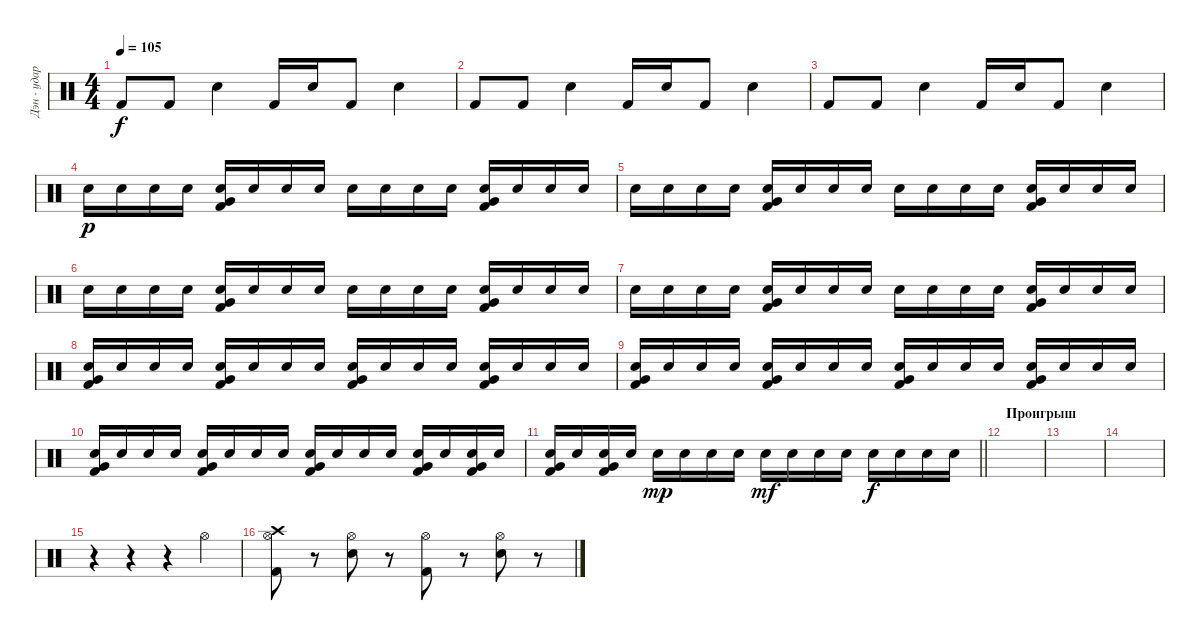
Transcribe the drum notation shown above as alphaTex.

\track ("Дэн - ударные" "Дэн - удар") {instrument percussion}
\staff {score}
\articulation defaults
\ts (4 4)
\tempo 105
\clef neutral
\ks c "Kick (hit) 2".8{dy f} "Kick (hit) 2".8 "Electric Snare (hit)".4 "Kick (hit) 2".16 "Electric Snare (hit)".16 "Kick (hit) 2".8 "Electric Snare (hit)".4
|
"Kick (hit) 2".8 "Kick (hit) 2".8 "Electric Snare (hit)".4 "Kick (hit) 2".16 "Electric Snare (hit)".16 "Kick (hit) 2".8 "Electric Snare (hit)".4 |
"Kick (hit) 2".8 "Kick (hit) 2".8 "Electric Snare (hit)".4 "Kick (hit) 2".16 "Electric Snare (hit)".16 "Kick (hit) 2".8 "Electric Snare (hit)".4 |
"Electric Snare (hit)".16{dy p} "Electric Snare (hit)".16 "Electric Snare (hit)".16 "Electric Snare (hit)".16 ("Electric Snare (hit)" "Very Low Tom (hit)" "Kick (hit) 2").16 "Electric Snare (hit)".16 "Electric Snare (hit)".16 "Electric Snare (hit)".16 "Electric Snare (hit)".16 "Electric Snare (hit)".16 "Electric Snare (hit)".16 "Electric Snare (hit)".16 ("Electric Snare (hit)" "Very Low Tom (hit)" "Kick (hit) 2").16 "Electric Snare (hit)".16 "Electric Snare (hit)".16 "Electric Snare (hit)".16 |
"Electric Snare (hit)".16 "Electric Snare (hit)".16 "Electric Snare (hit)".16 "Electric Snare (hit)".16 ("Electric Snare (hit)" "Very Low Tom (hit)" "Kick (hit) 2").16 "Electric Snare (hit)".16 "Electric Snare (hit)".16 "Electric Snare (hit)".16 "Electric Snare (hit)".16 "Electric Snare (hit)".16 "Electric Snare (hit)".16 "Electric Snare (hit)".16 ("Electric Snare (hit)" "Very Low Tom (hit)" "Kick (hit) 2").16 "Electric Snare (hit)".16 "Electric Snare (hit)".16 "Electric Snare (hit)".16 |
"Electric Snare (hit)".16 "Electric Snare (hit)".16 "Electric Snare (hit)".16 "Electric Snare (hit)".16 ("Electric Snare (hit)" "Very Low Tom (hit)" "Kick (hit) 2").16 "Electric Snare (hit)".16 "Electric Snare (hit)".16 "Electric Snare (hit)".16 "Electric Snare (hit)".16 "Electric Snare (hit)".16 "Electric Snare (hit)".16 "Electric Snare (hit)".16 ("Electric Snare (hit)" "Very Low Tom (hit)" "Kick (hit) 2").16 "Electric Snare (hit)".16 "Electric Snare (hit)".16 "Electric Snare (hit)".16 |
"Electric Snare (hit)".16 "Electric Snare (hit)".16 "Electric Snare (hit)".16 "Electric Snare (hit)".16 ("Electric Snare (hit)" "Very Low Tom (hit)" "Kick (hit) 2").16 "Electric Snare (hit)".16 "Electric Snare (hit)".16 "Electric Snare (hit)".16 "Electric Snare (hit)".16 "Electric Snare (hit)".16 "Electric Snare (hit)".16 "Electric Snare (hit)".16 ("Electric Snare (hit)" "Very Low Tom (hit)" "Kick (hit) 2").16 "Electric Snare (hit)".16 "Electric Snare (hit)".16 "Electric Snare (hit)".16 |
("Electric Snare (hit)" "Very Low Tom (hit)" "Kick (hit) 2").16 "Electric Snare (hit)".16 "Electric Snare (hit)".16 "Electric Snare (hit)".16 ("Electric Snare (hit)" "Very Low Tom (hit)" "Kick (hit) 2").16 "Electric Snare (hit)".16 "Electric Snare (hit)".16 "Electric Snare (hit)".16 ("Electric Snare (hit)" "Very Low Tom (hit)" "Kick (hit) 2").16 "Electric Snare (hit)".16 "Electric Snare (hit)".16 "Electric Snare (hit)".16 ("Electric Snare (hit)" "Very Low Tom (hit)" "Kick (hit) 2").16 "Electric Snare (hit)".16 "Electric Snare (hit)".16 "Electric Snare (hit)".16 |
("Electric Snare (hit)" "Very Low Tom (hit)" "Kick (hit) 2").16 "Electric Snare (hit)".16 "Electric Snare (hit)".16 "Electric Snare (hit)".16 ("Electric Snare (hit)" "Very Low Tom (hit)" "Kick (hit) 2").16 "Electric Snare (hit)".16 "Electric Snare (hit)".16 "Electric Snare (hit)".16 ("Electric Snare (hit)" "Very Low Tom (hit)" "Kick (hit) 2").16 "Electric Snare (hit)".16 "Electric Snare (hit)".16 "Electric Snare (hit)".16 ("Electric Snare (hit)" "Very Low Tom (hit)" "Kick (hit) 2").16 "Electric Snare (hit)".16 "Electric Snare (hit)".16 "Electric Snare (hit)".16 |
("Electric Snare (hit)" "Very Low Tom (hit)" "Kick (hit) 2").16 "Electric Snare (hit)".16 "Electric Snare (hit)".16 "Electric Snare (hit)".16 ("Electric Snare (hit)" "Very Low Tom (hit)" "Kick (hit) 2").16 "Electric Snare (hit)".16 "Electric Snare (hit)".16 "Electric Snare (hit)".16 ("Electric Snare (hit)" "Very Low Tom (hit)" "Kick (hit) 2").16 "Electric Snare (hit)".16 "Electric Snare (hit)".16 "Electric Snare (hit)".16 ("Electric Snare (hit)" "Very Low Tom (hit)" "Kick (hit) 2").16 "Electric Snare (hit)".16 ("Electric Snare (hit)" "Very Low Tom (hit)" "Kick (hit) 2").16 "Electric Snare (hit)".16 |
\barLineRight lightlight
("Electric Snare (hit)" "Very Low Tom (hit)" "Kick (hit) 2").16 "Electric Snare (hit)".16 ("Electric Snare (hit)" "Very Low Tom (hit)" "Kick (hit) 2").16 "Electric Snare (hit)".16 "Electric Snare (hit)".16{dy mp} "Electric Snare (hit)".16 "Electric Snare (hit)".16 "Electric Snare (hit)".16 "Electric Snare (hit)".16{dy mf} "Electric Snare (hit)".16 "Electric Snare (hit)".16 "Electric Snare (hit)".16 "Electric Snare (hit)".16{dy f} "Electric Snare (hit)".16 "Electric Snare (hit)".16 "Electric Snare (hit)".16 |
\section ("" "Проигрыш")
|
|
|
r.4 r.4 r.4 "Hi-Hat (open)".4 |
("Crash high (hit)" "Hi-Hat (open)" "Kick (hit) 2").8 r.8 ("Hi-Hat (open)" "Electric Snare (hit)").8 r.8 ("Hi-Hat (open)" "Kick (hit) 2").8 r.8 ("Hi-Hat (open)" "Electric Snare (hit)").8 r.8
